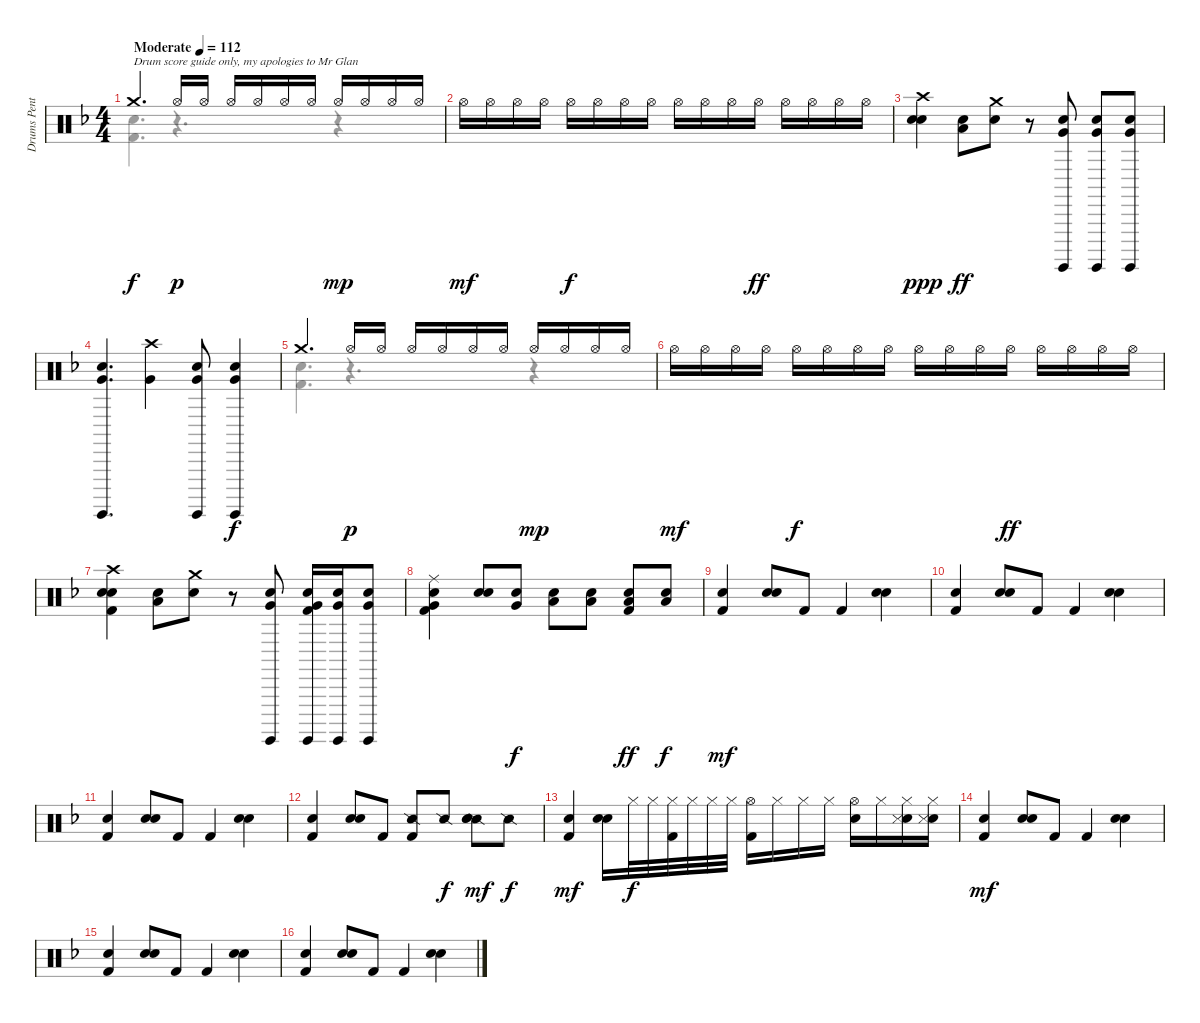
\track ("Drums Pentti Glan" "Drums Pent") {mute instrument percussion}
\staff {score}
\articulation defaults
\voice
\ts (4 4)
\tempo (112 "Moderate")
\clef neutral
\ks f "Crash medium (hit)".4{d txt "Drum score guide only, my apologies to Mr Glan" dy f} "Hi-Hat (open)".16{dy p} "Hi-Hat (open)".16 "Hi-Hat (open)".16 "Hi-Hat (open)".16 "Hi-Hat (open)".16 "Hi-Hat (open)".16 "Hi-Hat (open)".16{dy mp} "Hi-Hat (open)".16 "Hi-Hat (open)".16 "Hi-Hat (open)".16
|
"Hi-Hat (open)".16{dy mf} "Hi-Hat (open)".16 "Hi-Hat (open)".16 "Hi-Hat (open)".16 "Hi-Hat (open)".16{dy f} "Hi-Hat (open)".16 "Hi-Hat (open)".16 "Hi-Hat (open)".16 "Hi-Hat (open)".16 "Hi-Hat (open)".16 "Hi-Hat (open)".16 "Hi-Hat (open)".16{dy ff} "Hi-Hat (open)".16 "Hi-Hat (open)".16 "Hi-Hat (open)".16 "Hi-Hat (open)".16 |
("Crash high (hit)" "Hand Clap (hit)" "Electric Snare (hit)").4{dy ppp} ("Low Floor Tom (hit)" "Hand Clap (hit)").8{dy ff} ("Crash medium (hit)" "Electric Snare (hit)").8 r.8 ("Hand Clap (hit)" "Very Low Tom (hit)" "Surdo (hit)").8 ("Hand Clap (hit)" "Very Low Tom (hit)" "Surdo (hit)").8 ("Hand Clap (hit)" "Very Low Tom (hit)" "Surdo (hit)").8 |
("Hand Clap (hit)" "Very Low Tom (hit)" "Surdo (hit)").4{d} ("Crash high (hit)" "Very Low Tom (hit)").4 ("Hand Clap (hit)" "Very Low Tom (hit)" "Surdo (hit)").8 ("Hand Clap (hit)" "Very Low Tom (hit)" "Surdo (hit)").4{dy f} |
"Crash medium (hit)".4{d} "Hi-Hat (open)".16{dy p} "Hi-Hat (open)".16 "Hi-Hat (open)".16 "Hi-Hat (open)".16 "Hi-Hat (open)".16 "Hi-Hat (open)".16 "Hi-Hat (open)".16{dy mp} "Hi-Hat (open)".16 "Hi-Hat (open)".16 "Hi-Hat (open)".16 |
"Hi-Hat (open)".16{dy mf} "Hi-Hat (open)".16 "Hi-Hat (open)".16 "Hi-Hat (open)".16 "Hi-Hat (open)".16{dy f} "Hi-Hat (open)".16 "Hi-Hat (open)".16 "Hi-Hat (open)".16 "Hi-Hat (open)".16 "Hi-Hat (open)".16 "Hi-Hat (open)".16 "Hi-Hat (open)".16{dy ff} "Hi-Hat (open)".16 "Hi-Hat (open)".16 "Hi-Hat (open)".16 "Hi-Hat (open)".16 |
("Crash high (hit)" "Hand Clap (hit)" "Electric Snare (hit)" "Kick (hit) 2").4 ("Low Floor Tom (hit)" "Hand Clap (hit)").8 ("Crash medium (hit)" "Electric Snare (hit)").8 r.8 ("Hand Clap (hit)" "Very Low Tom (hit)" "Surdo (hit)").8 ("Hand Clap (hit)" "Very Low Tom (hit)" "Surdo (hit)" "Kick (hit) 2").16 ("Hand Clap (hit)" "Very Low Tom (hit)" "Surdo (hit)").16 ("Hand Clap (hit)" "Very Low Tom (hit)" "Surdo (hit)").8 |
("Ride (middle)" "Hand Clap (hit)" "Very Low Tom (hit)" "Kick (hit) 2").4 ("Hand Clap (hit)" "Electric Snare (hit)").8 ("Hand Clap (hit)" "Very Low Tom (hit)").8{dy f} ("Hand Clap (hit)" "Low Floor Tom (hit)").8 ("Hand Clap (hit)" "Low Floor Tom (hit)").8 ("Hand Clap (hit)" "Low Floor Tom (hit)" "Kick (hit) 2").8{dy ff} ("Hand Clap (hit)" "Low Floor Tom (hit)").8{dy f} |
("Hand Clap (hit)" "Kick (hit) 2").4{dy mf} ("Electric Snare (hit)" "Snare (hit) 2").8 "Kick (hit) 2".8 "Kick (hit) 2".4 ("Electric Snare (hit)" "Snare (hit) 2").4 |
("Hand Clap (hit)" "Kick (hit) 2").4 ("Electric Snare (hit)" "Snare (hit) 2").8 "Kick (hit) 2".8 "Kick (hit) 2".4 ("Electric Snare (hit)" "Snare (hit) 2").4 |
("Hand Clap (hit)" "Kick (hit) 2").4 ("Electric Snare (hit)" "Snare (hit) 2").8 "Kick (hit) 2".8 "Kick (hit) 2".4 ("Electric Snare (hit)" "Snare (hit) 2").4 |
("Hand Clap (hit)" "Kick (hit) 2").4 ("Electric Snare (hit)" "Snare (hit) 2").8 "Kick (hit) 2".8 ("Snare (side stick) 2" "Kick (hit) 2").8 "Snare (side stick) 2".8{dy f} ("Snare (side stick) 2" "Electric Snare (hit)" "Snare (hit) 2").8{dy mf} "Snare (side stick) 2".8{dy f} |
("Hand Clap (hit)" "Kick (hit) 2").4{dy mf} ("Electric Snare (hit)" "Snare (hit) 2").16 "Hi-Hat (closed)".32{dy f} "Hi-Hat (closed)".32 ("Hi-Hat (closed)" "Kick (hit) 2").32 "Hi-Hat (closed)".32 "Hi-Hat (closed)".32 "Hi-Hat (closed)".32 ("Hi-Hat (open)" "Kick (hit) 2").16 "Hi-Hat (closed)".16 "Hi-Hat (closed)".16 "Hi-Hat (closed)".16 ("Hi-Hat (open)" "Electric Snare (hit)").16 "Hi-Hat (closed)".16 ("Hi-Hat (closed)" "Electric Snare (hit)" "Snare (side stick) 3").16 ("Hi-Hat (closed)" "Electric Snare (hit)" "Snare (side stick) 3").16 |
("Hand Clap (hit)" "Kick (hit) 2").4{dy mf} ("Electric Snare (hit)" "Snare (hit) 2").8 "Kick (hit) 2".8 "Kick (hit) 2".4 ("Electric Snare (hit)" "Snare (hit) 2").4 |
("Hand Clap (hit)" "Kick (hit) 2").4 ("Electric Snare (hit)" "Snare (hit) 2").8 "Kick (hit) 2".8 "Kick (hit) 2".4 ("Electric Snare (hit)" "Snare (hit) 2").4 |
("Hand Clap (hit)" "Kick (hit) 2").4 ("Electric Snare (hit)" "Snare (hit) 2").8 "Kick (hit) 2".8 "Kick (hit) 2".4 ("Electric Snare (hit)" "Snare (hit) 2").4
\voice
\clef neutral
\ottava regular
\simile none
\ks f
("Kick (hit) 2" "Snare (hit) 2").4{d dy f} r.4{d} r.4 |
|
|
|
("Kick (hit) 2" "Snare (hit) 2").4{d} r.4{d} r.4 |
|
|
|
|
|
|
|
|
|
|
